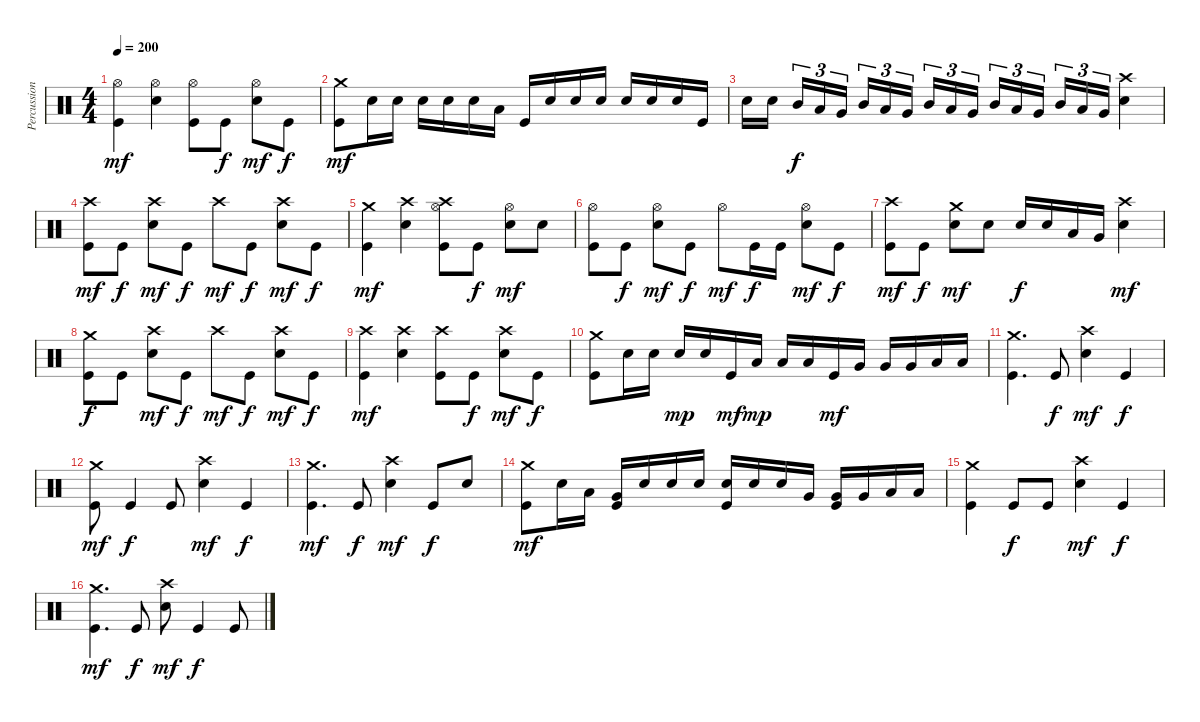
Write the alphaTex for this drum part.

\track ("Percussion" "Percussion") {instrument percussion}
\staff {score}
\articulation defaults
\ts (4 4)
\tempo 200
\clef neutral
\ks c
("Hi-Hat (open)" "Kick (hit)").4{dy mf} ("Hi-Hat (open)" "Electric Snare (hit)").4 ("Hi-Hat (open)" "Kick (hit)").8 "Kick (hit)".8{dy f} ("Hi-Hat (open)" "Electric Snare (hit)").8{dy mf} "Kick (hit)".8{dy f} |
("Crash medium (hit)" "Kick (hit)").8{dy mf} "Electric Snare (hit)".16 "Electric Snare (hit)".16 "Electric Snare (hit)".16 "Electric Snare (hit)".16 "Electric Snare (hit)".16 "Low Tom (hit)".16 "Kick (hit)".16 "Electric Snare (hit)".16 "Electric Snare (hit)".16 "Electric Snare (hit)".16 "Electric Snare (hit)".16 "Electric Snare (hit)".16 "Electric Snare (hit)".16 "Kick (hit)".16 |
"Electric Snare (hit)".16 "Electric Snare (hit)".16{beam splitsecondary} "Mid Tom (hit)".16{tu (3 2) dy f} "Low Tom (hit)".16{tu (3 2)} "Very Low Tom (hit)".16{tu (3 2)} "Mid Tom (hit)".16{tu (3 2)} "Low Tom (hit)".16{tu (3 2)} "Very Low Tom (hit)".16{tu (3 2) beam splitsecondary} "Mid Tom (hit)".16{tu (3 2)} "Low Tom (hit)".16{tu (3 2)} "Very Low Tom (hit)".16{tu (3 2)} "Mid Tom (hit)".16{tu (3 2)} "Low Tom (hit)".16{tu (3 2)} "Very Low Tom (hit)".16{tu (3 2) beam splitsecondary} "Mid Tom (hit)".16{tu (3 2)} "Low Tom (hit)".16{tu (3 2)} "Very Low Tom (hit)".16{tu (3 2)} ("Crash high (hit)" "Electric Snare (hit)").4 |
("Crash high (hit)" "Kick (hit)").8{dy mf} "Kick (hit)".8{dy f} ("Crash high (hit)" "Electric Snare (hit)").8{dy mf} "Kick (hit)".8{dy f} "Crash high (hit)".8{dy mf} "Kick (hit)".8{dy f} ("Crash high (hit)" "Electric Snare (hit)").8{dy mf} "Kick (hit)".8{dy f} |
("Crash medium (hit)" "Kick (hit)").4{dy mf} ("Crash high (hit)" "Electric Snare (hit)").4 ("Crash high (hit)" "Hi-Hat (open)" "Kick (hit)").8 "Kick (hit)".8{dy f} ("Hi-Hat (open)" "Electric Snare (hit)").8{dy mf} "Electric Snare (hit)".8 |
("Hi-Hat (open)" "Kick (hit)").8 "Kick (hit)".8{dy f} ("Hi-Hat (open)" "Electric Snare (hit)").8{dy mf} "Kick (hit)".8{dy f} "Hi-Hat (open)".8{dy mf} "Kick (hit)".16{dy f} "Kick (hit)".16 ("Hi-Hat (open)" "Electric Snare (hit)").8{dy mf} "Kick (hit)".8{dy f} |
("Crash high (hit)" "Kick (hit)").8{dy mf} "Kick (hit)".8{dy f} ("Crash medium (hit)" "Electric Snare (hit)").8{dy mf} "Electric Snare (hit)".8 "Electric Snare (hit)".16{dy f} "Electric Snare (hit)".16 "Low Tom (hit)".16 "Very Low Tom (hit)".16 ("Crash high (hit)" "Electric Snare (hit)").4{dy mf} |
("Crash medium (hit)" "Kick (hit)").8{dy f} "Kick (hit)".8 ("Crash high (hit)" "Electric Snare (hit)").8{dy mf} "Kick (hit)".8{dy f} "Crash high (hit)".8{dy mf} "Kick (hit)".8{dy f} ("Crash high (hit)" "Electric Snare (hit)").8{dy mf} "Kick (hit)".8{dy f} |
("Crash high (hit)" "Kick (hit)").4{dy mf} ("Crash high (hit)" "Electric Snare (hit)").4 ("Crash high (hit)" "Kick (hit)").8 "Kick (hit)".8{dy f} ("Crash high (hit)" "Electric Snare (hit)").8{dy mf} "Kick (hit)".8{dy f} |
("Crash medium (hit)" "Kick (hit)").8 "Electric Snare (hit)".16 "Electric Snare (hit)".16 "Electric Snare (hit)".16{dy mp} "Electric Snare (hit)".16 "Kick (hit)".16{dy mf} "Low Tom (hit)".16{dy mp} "Low Tom (hit)".16 "Low Tom (hit)".16 "Kick (hit)".16{dy mf} "Very Low Tom (hit)".16 "Very Low Tom (hit)".16 "Very Low Tom (hit)".16 "Low Floor Tom (hit)".16 "Low Floor Tom (hit)".16 |
("Crash medium (hit)" "Kick (hit)").4{d} "Kick (hit)".8{dy f} ("Crash high (hit)" "Electric Snare (hit)").4{dy mf} "Kick (hit)".4{dy f} |
("Crash medium (hit)" "Kick (hit)").8{dy mf} "Kick (hit)".4{dy f} "Kick (hit)".8 ("Crash high (hit)" "Electric Snare (hit)").4{dy mf} "Kick (hit)".4{dy f} |
("Crash medium (hit)" "Kick (hit)").4{d dy mf} "Kick (hit)".8{dy f} ("Crash high (hit)" "Electric Snare (hit)").4{dy mf} "Kick (hit)".8{dy f} "Electric Snare (hit)".8 |
("Crash medium (hit)" "Kick (hit)").8{dy mf} "Electric Snare (hit)".16 "Low Tom (hit)".16 ("Very Low Tom (hit)" "Kick (hit)").16 "Electric Snare (hit)".16 "Electric Snare (hit)".16 "Electric Snare (hit)".16 ("Electric Snare (hit)" "Kick (hit)").16 "Electric Snare (hit)".16 "Electric Snare (hit)".16 "Very Low Tom (hit)".16 ("Very Low Tom (hit)" "Kick (hit)").16 "Very Low Tom (hit)".16 "Low Floor Tom (hit)".16 "Low Floor Tom (hit)".16 |
("Crash medium (hit)" "Kick (hit)").4 "Kick (hit)".8{dy f} "Kick (hit)".8 ("Crash high (hit)" "Electric Snare (hit)").4{dy mf} "Kick (hit)".4{dy f} |
("Crash medium (hit)" "Kick (hit)").4{d dy mf} "Kick (hit)".8{dy f} ("Crash high (hit)" "Electric Snare (hit)").8{dy mf} "Kick (hit)".4{dy f} "Kick (hit)".8
